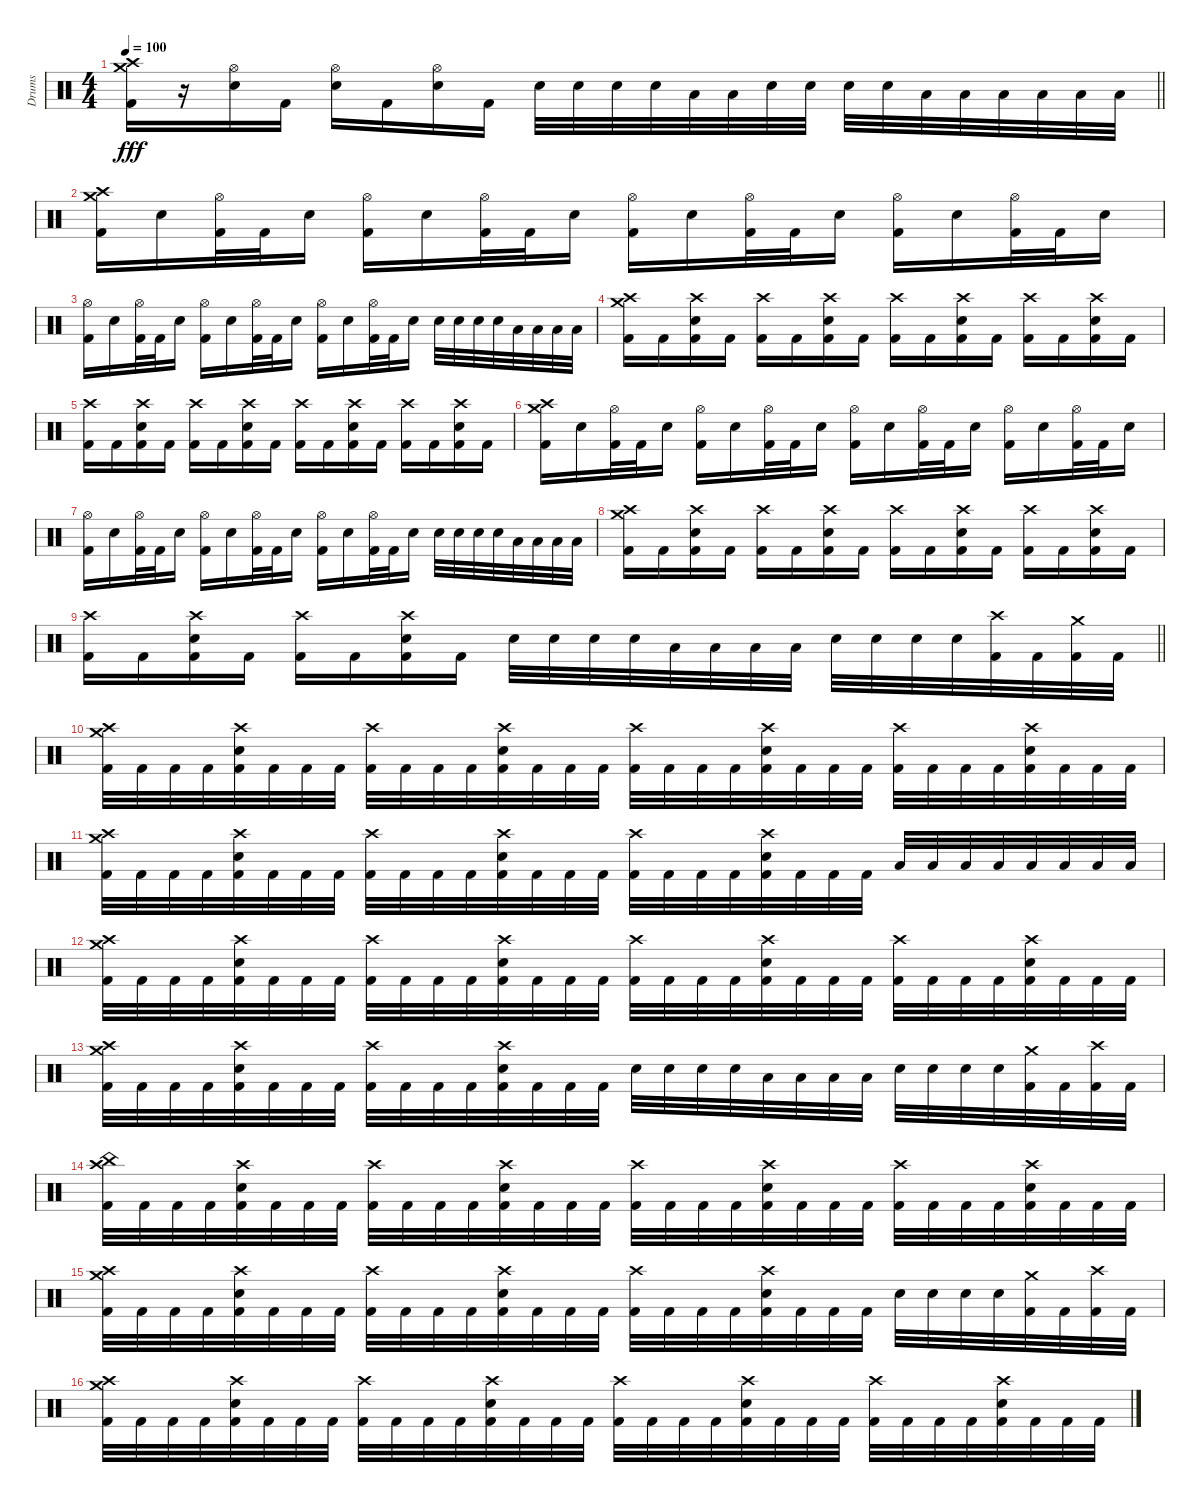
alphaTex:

\track ("Drums" "Drums") {instrument percussion}
\staff {score}
\articulation defaults
\ts (4 4)
\tempo 100
\clef neutral
\barLineRight lightlight
\ks c
("Crash high (hit)" "Crash medium (hit)" "Kick (hit) 2").16{dy fff} r.16 ("Hi-Hat (open)" "Electric Snare (hit)").16 "Kick (hit) 2".16 ("Hi-Hat (open)" "Electric Snare (hit)").16 "Kick (hit) 2".16 ("Hi-Hat (open)" "Electric Snare (hit)").16 "Kick (hit) 2".16 "Electric Snare (hit)".32 "Electric Snare (hit)".32 "Electric Snare (hit)".32 "Electric Snare (hit)".32 "Low Tom (hit)".32 "Low Tom (hit)".32 "Electric Snare (hit)".32 "Electric Snare (hit)".32 "Electric Snare (hit)".32 "Electric Snare (hit)".32 "Low Tom (hit)".32 "Low Tom (hit)".32 "Low Floor Tom (hit)".32 "Low Floor Tom (hit)".32 "Low Floor Tom (hit)".32 "Low Floor Tom (hit)".32 |
\section ("" "")
("Crash high (hit)" "Crash medium (hit)" "Kick (hit) 2").16 "Electric Snare (hit)".16 ("Hi-Hat (open)" "Kick (hit) 2").32 "Kick (hit) 2".32 "Electric Snare (hit)".16 ("Hi-Hat (open)" "Kick (hit) 2").16 "Electric Snare (hit)".16 ("Hi-Hat (open)" "Kick (hit) 2").32 "Kick (hit) 2".32 "Electric Snare (hit)".16 ("Hi-Hat (open)" "Kick (hit) 2").16 "Electric Snare (hit)".16 ("Hi-Hat (open)" "Kick (hit) 2").32 "Kick (hit) 2".32 "Electric Snare (hit)".16 ("Hi-Hat (open)" "Kick (hit) 2").16 "Electric Snare (hit)".16 ("Hi-Hat (open)" "Kick (hit) 2").32 "Kick (hit) 2".32 "Electric Snare (hit)".16 |
("Hi-Hat (open)" "Kick (hit) 2").16 "Electric Snare (hit)".16 ("Hi-Hat (open)" "Kick (hit) 2").32 "Kick (hit) 2".32 "Electric Snare (hit)".16 ("Hi-Hat (open)" "Kick (hit) 2").16 "Electric Snare (hit)".16 ("Hi-Hat (open)" "Kick (hit) 2").32 "Kick (hit) 2".32 "Electric Snare (hit)".16 ("Hi-Hat (open)" "Kick (hit) 2").16 "Electric Snare (hit)".16 ("Hi-Hat (open)" "Kick (hit) 2").32 "Kick (hit) 2".32 "Electric Snare (hit)".16 "Electric Snare (hit)".32 "Electric Snare (hit)".32 "Electric Snare (hit)".32 "Electric Snare (hit)".32 "Low Tom (hit)".32 "Low Tom (hit)".32 "Low Tom (hit)".32 "Low Tom (hit)".32 |
("Crash high (hit)" "Crash medium (hit)" "Kick (hit) 2").16 "Kick (hit) 2".16 ("Crash high (hit)" "Electric Snare (hit)" "Kick (hit) 2").16 "Kick (hit) 2".16 ("Crash high (hit)" "Kick (hit) 2").16 "Kick (hit) 2".16 ("Crash high (hit)" "Electric Snare (hit)" "Kick (hit) 2").16 "Kick (hit) 2".16 ("Crash high (hit)" "Kick (hit) 2").16 "Kick (hit) 2".16 ("Crash high (hit)" "Electric Snare (hit)" "Kick (hit) 2").16 "Kick (hit) 2".16 ("Crash high (hit)" "Kick (hit) 2").16 "Kick (hit) 2".16 ("Crash high (hit)" "Electric Snare (hit)" "Kick (hit) 2").16 "Kick (hit) 2".16 |
("Crash high (hit)" "Kick (hit) 2").16 "Kick (hit) 2".16 ("Crash high (hit)" "Electric Snare (hit)" "Kick (hit) 2").16 "Kick (hit) 2".16 ("Crash high (hit)" "Kick (hit) 2").16 "Kick (hit) 2".16 ("Crash high (hit)" "Electric Snare (hit)" "Kick (hit) 2").16 "Kick (hit) 2".16 ("Crash high (hit)" "Kick (hit) 2").16 "Kick (hit) 2".16 ("Crash high (hit)" "Electric Snare (hit)" "Kick (hit) 2").16 "Kick (hit) 2".16 ("Crash high (hit)" "Kick (hit) 2").16 "Kick (hit) 2".16 ("Crash high (hit)" "Electric Snare (hit)" "Kick (hit) 2").16 "Kick (hit) 2".16 |
("Crash high (hit)" "Crash medium (hit)" "Kick (hit) 2").16 "Electric Snare (hit)".16 ("Hi-Hat (open)" "Kick (hit) 2").32 "Kick (hit) 2".32 "Electric Snare (hit)".16 ("Hi-Hat (open)" "Kick (hit) 2").16 "Electric Snare (hit)".16 ("Hi-Hat (open)" "Kick (hit) 2").32 "Kick (hit) 2".32 "Electric Snare (hit)".16 ("Hi-Hat (open)" "Kick (hit) 2").16 "Electric Snare (hit)".16 ("Hi-Hat (open)" "Kick (hit) 2").32 "Kick (hit) 2".32 "Electric Snare (hit)".16 ("Hi-Hat (open)" "Kick (hit) 2").16 "Electric Snare (hit)".16 ("Hi-Hat (open)" "Kick (hit) 2").32 "Kick (hit) 2".32 "Electric Snare (hit)".16 |
("Hi-Hat (open)" "Kick (hit) 2").16 "Electric Snare (hit)".16 ("Hi-Hat (open)" "Kick (hit) 2").32 "Kick (hit) 2".32 "Electric Snare (hit)".16 ("Hi-Hat (open)" "Kick (hit) 2").16 "Electric Snare (hit)".16 ("Hi-Hat (open)" "Kick (hit) 2").32 "Kick (hit) 2".32 "Electric Snare (hit)".16 ("Hi-Hat (open)" "Kick (hit) 2").16 "Electric Snare (hit)".16 ("Hi-Hat (open)" "Kick (hit) 2").32 "Kick (hit) 2".32 "Electric Snare (hit)".16 "Electric Snare (hit)".32 "Electric Snare (hit)".32 "Electric Snare (hit)".32 "Electric Snare (hit)".32 "Low Tom (hit)".32 "Low Tom (hit)".32 "Low Tom (hit)".32 "Low Tom (hit)".32 |
("Crash high (hit)" "Crash medium (hit)" "Kick (hit) 2").16 "Kick (hit) 2".16 ("Crash high (hit)" "Electric Snare (hit)" "Kick (hit) 2").16 "Kick (hit) 2".16 ("Crash high (hit)" "Kick (hit) 2").16 "Kick (hit) 2".16 ("Crash high (hit)" "Electric Snare (hit)" "Kick (hit) 2").16 "Kick (hit) 2".16 ("Crash high (hit)" "Kick (hit) 2").16 "Kick (hit) 2".16 ("Crash high (hit)" "Electric Snare (hit)" "Kick (hit) 2").16 "Kick (hit) 2".16 ("Crash high (hit)" "Kick (hit) 2").16 "Kick (hit) 2".16 ("Crash high (hit)" "Electric Snare (hit)" "Kick (hit) 2").16 "Kick (hit) 2".16 |
\barLineRight lightlight
("Crash high (hit)" "Kick (hit) 2").16 "Kick (hit) 2".16 ("Crash high (hit)" "Electric Snare (hit)" "Kick (hit) 2").16 "Kick (hit) 2".16 ("Crash high (hit)" "Kick (hit) 2").16 "Kick (hit) 2".16 ("Crash high (hit)" "Electric Snare (hit)" "Kick (hit) 2").16 "Kick (hit) 2".16 "Electric Snare (hit)".32 "Electric Snare (hit)".32 "Electric Snare (hit)".32 "Electric Snare (hit)".32 "Low Tom (hit)".32 "Low Tom (hit)".32 "Low Tom (hit)".32 "Low Tom (hit)".32 "Electric Snare (hit)".32 "Electric Snare (hit)".32 "Electric Snare (hit)".32 "Electric Snare (hit)".32 ("Crash high (hit)" "Kick (hit) 2").32 "Kick (hit) 2".32 ("Crash medium (hit)" "Kick (hit) 2").32 "Kick (hit) 2".32 |
\section ("" "")
("Crash high (hit)" "Crash medium (hit)" "Kick (hit) 2").32 "Kick (hit) 2".32 "Kick (hit) 2".32 "Kick (hit) 2".32 ("Crash high (hit)" "Electric Snare (hit)" "Kick (hit) 2").32 "Kick (hit) 2".32 "Kick (hit) 2".32 "Kick (hit) 2".32 ("Crash high (hit)" "Kick (hit) 2").32 "Kick (hit) 2".32 "Kick (hit) 2".32 "Kick (hit) 2".32 ("Crash high (hit)" "Electric Snare (hit)" "Kick (hit) 2").32 "Kick (hit) 2".32 "Kick (hit) 2".32 "Kick (hit) 2".32 ("Crash high (hit)" "Kick (hit) 2").32 "Kick (hit) 2".32 "Kick (hit) 2".32 "Kick (hit) 2".32 ("Crash high (hit)" "Electric Snare (hit)" "Kick (hit) 2").32 "Kick (hit) 2".32 "Kick (hit) 2".32 "Kick (hit) 2".32 ("Crash high (hit)" "Kick (hit) 2").32 "Kick (hit) 2".32 "Kick (hit) 2".32 "Kick (hit) 2".32 ("Crash high (hit)" "Electric Snare (hit)" "Kick (hit) 2").32 "Kick (hit) 2".32 "Kick (hit) 2".32 "Kick (hit) 2".32 |
("Crash high (hit)" "Crash medium (hit)" "Kick (hit) 2").32 "Kick (hit) 2".32 "Kick (hit) 2".32 "Kick (hit) 2".32 ("Crash high (hit)" "Electric Snare (hit)" "Kick (hit) 2").32 "Kick (hit) 2".32 "Kick (hit) 2".32 "Kick (hit) 2".32 ("Crash high (hit)" "Kick (hit) 2").32 "Kick (hit) 2".32 "Kick (hit) 2".32 "Kick (hit) 2".32 ("Crash high (hit)" "Electric Snare (hit)" "Kick (hit) 2").32 "Kick (hit) 2".32 "Kick (hit) 2".32 "Kick (hit) 2".32 ("Crash high (hit)" "Kick (hit) 2").32 "Kick (hit) 2".32 "Kick (hit) 2".32 "Kick (hit) 2".32 ("Crash high (hit)" "Electric Snare (hit)" "Kick (hit) 2").32 "Kick (hit) 2".32 "Kick (hit) 2".32 "Kick (hit) 2".32 "Low Tom (hit)".32 "Low Tom (hit)".32 "Low Tom (hit)".32 "Low Tom (hit)".32 "Low Floor Tom (hit)".32 "Low Floor Tom (hit)".32 "Low Floor Tom (hit)".32 "Low Floor Tom (hit)".32 |
("Crash high (hit)" "Crash medium (hit)" "Kick (hit) 2").32 "Kick (hit) 2".32 "Kick (hit) 2".32 "Kick (hit) 2".32 ("Crash high (hit)" "Electric Snare (hit)" "Kick (hit) 2").32 "Kick (hit) 2".32 "Kick (hit) 2".32 "Kick (hit) 2".32 ("Crash high (hit)" "Kick (hit) 2").32 "Kick (hit) 2".32 "Kick (hit) 2".32 "Kick (hit) 2".32 ("Crash high (hit)" "Electric Snare (hit)" "Kick (hit) 2").32 "Kick (hit) 2".32 "Kick (hit) 2".32 "Kick (hit) 2".32 ("Crash high (hit)" "Kick (hit) 2").32 "Kick (hit) 2".32 "Kick (hit) 2".32 "Kick (hit) 2".32 ("Crash high (hit)" "Electric Snare (hit)" "Kick (hit) 2").32 "Kick (hit) 2".32 "Kick (hit) 2".32 "Kick (hit) 2".32 ("Crash high (hit)" "Kick (hit) 2").32 "Kick (hit) 2".32 "Kick (hit) 2".32 "Kick (hit) 2".32 ("Crash high (hit)" "Electric Snare (hit)" "Kick (hit) 2").32 "Kick (hit) 2".32 "Kick (hit) 2".32 "Kick (hit) 2".32 |
("Crash high (hit)" "Crash medium (hit)" "Kick (hit) 2").32 "Kick (hit) 2".32 "Kick (hit) 2".32 "Kick (hit) 2".32 ("Crash high (hit)" "Electric Snare (hit)" "Kick (hit) 2").32 "Kick (hit) 2".32 "Kick (hit) 2".32 "Kick (hit) 2".32 ("Crash high (hit)" "Kick (hit) 2").32 "Kick (hit) 2".32 "Kick (hit) 2".32 "Kick (hit) 2".32 ("Crash high (hit)" "Electric Snare (hit)" "Kick (hit) 2").32 "Kick (hit) 2".32 "Kick (hit) 2".32 "Kick (hit) 2".32 "Electric Snare (hit)".32 "Electric Snare (hit)".32 "Electric Snare (hit)".32 "Electric Snare (hit)".32 "Low Tom (hit)".32 "Low Tom (hit)".32 "Low Tom (hit)".32 "Low Tom (hit)".32 "Electric Snare (hit)".32 "Electric Snare (hit)".32 "Electric Snare (hit)".32 "Electric Snare (hit)".32 ("Crash medium (hit)" "Kick (hit) 2").32 "Kick (hit) 2".32 ("Crash high (hit)" "Kick (hit) 2").32 "Kick (hit) 2".32 |
("Crash high (hit)" "China (hit)" "Kick (hit) 2").32 "Kick (hit) 2".32 "Kick (hit) 2".32 "Kick (hit) 2".32 ("Crash high (hit)" "Electric Snare (hit)" "Kick (hit) 2").32 "Kick (hit) 2".32 "Kick (hit) 2".32 "Kick (hit) 2".32 ("Crash high (hit)" "Kick (hit) 2").32 "Kick (hit) 2".32 "Kick (hit) 2".32 "Kick (hit) 2".32 ("Crash high (hit)" "Electric Snare (hit)" "Kick (hit) 2").32 "Kick (hit) 2".32 "Kick (hit) 2".32 "Kick (hit) 2".32 ("Crash high (hit)" "Kick (hit) 2").32 "Kick (hit) 2".32 "Kick (hit) 2".32 "Kick (hit) 2".32 ("Crash high (hit)" "Electric Snare (hit)" "Kick (hit) 2").32 "Kick (hit) 2".32 "Kick (hit) 2".32 "Kick (hit) 2".32 ("Crash high (hit)" "Kick (hit) 2").32 "Kick (hit) 2".32 "Kick (hit) 2".32 "Kick (hit) 2".32 ("Crash high (hit)" "Electric Snare (hit)" "Kick (hit) 2").32 "Kick (hit) 2".32 "Kick (hit) 2".32 "Kick (hit) 2".32 |
("Crash high (hit)" "Crash medium (hit)" "Kick (hit) 2").32 "Kick (hit) 2".32 "Kick (hit) 2".32 "Kick (hit) 2".32 ("Crash high (hit)" "Electric Snare (hit)" "Kick (hit) 2").32 "Kick (hit) 2".32 "Kick (hit) 2".32 "Kick (hit) 2".32 ("Crash high (hit)" "Kick (hit) 2").32 "Kick (hit) 2".32 "Kick (hit) 2".32 "Kick (hit) 2".32 ("Crash high (hit)" "Electric Snare (hit)" "Kick (hit) 2").32 "Kick (hit) 2".32 "Kick (hit) 2".32 "Kick (hit) 2".32 ("Crash high (hit)" "Kick (hit) 2").32 "Kick (hit) 2".32 "Kick (hit) 2".32 "Kick (hit) 2".32 ("Crash high (hit)" "Electric Snare (hit)" "Kick (hit) 2").32 "Kick (hit) 2".32 "Kick (hit) 2".32 "Kick (hit) 2".32 "Electric Snare (hit)".32 "Electric Snare (hit)".32 "Electric Snare (hit)".32 "Electric Snare (hit)".32 ("Crash medium (hit)" "Kick (hit) 2").32 "Kick (hit) 2".32 ("Crash high (hit)" "Kick (hit) 2").32 "Kick (hit) 2".32 |
("Crash high (hit)" "Crash medium (hit)" "Kick (hit) 2").32 "Kick (hit) 2".32 "Kick (hit) 2".32 "Kick (hit) 2".32 ("Crash high (hit)" "Electric Snare (hit)" "Kick (hit) 2").32 "Kick (hit) 2".32 "Kick (hit) 2".32 "Kick (hit) 2".32 ("Crash high (hit)" "Kick (hit) 2").32 "Kick (hit) 2".32 "Kick (hit) 2".32 "Kick (hit) 2".32 ("Crash high (hit)" "Electric Snare (hit)" "Kick (hit) 2").32 "Kick (hit) 2".32 "Kick (hit) 2".32 "Kick (hit) 2".32 ("Crash high (hit)" "Kick (hit) 2").32 "Kick (hit) 2".32 "Kick (hit) 2".32 "Kick (hit) 2".32 ("Crash high (hit)" "Electric Snare (hit)" "Kick (hit) 2").32 "Kick (hit) 2".32 "Kick (hit) 2".32 "Kick (hit) 2".32 ("Crash high (hit)" "Kick (hit) 2").32 "Kick (hit) 2".32 "Kick (hit) 2".32 "Kick (hit) 2".32 ("Crash high (hit)" "Electric Snare (hit)" "Kick (hit) 2").32 "Kick (hit) 2".32 "Kick (hit) 2".32 "Kick (hit) 2".32
